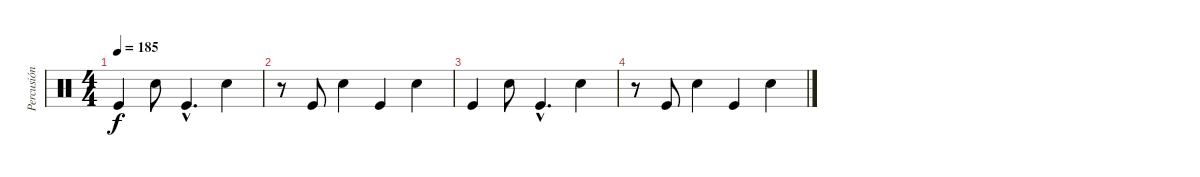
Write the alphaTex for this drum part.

\track ("Percusión" "Percusión") {instrument percussion}
\staff {score}
\articulation defaults
\ts (4 4)
\tempo 185
\clef neutral
\ks c "Kick (hit)".4{dy f} "Electric Snare (hit)".8 "Kick (hit)"{hac}.4{d} "Electric Snare (hit)".4
|
r.8 "Kick (hit)".8 "Electric Snare (hit)".4 "Kick (hit)".4 "Electric Snare (hit)".4 |
"Kick (hit)".4 "Electric Snare (hit)".8 "Kick (hit)"{hac}.4{d} "Electric Snare (hit)".4 |
r.8 "Kick (hit)".8 "Electric Snare (hit)".4 "Kick (hit)".4 "Electric Snare (hit)".4
